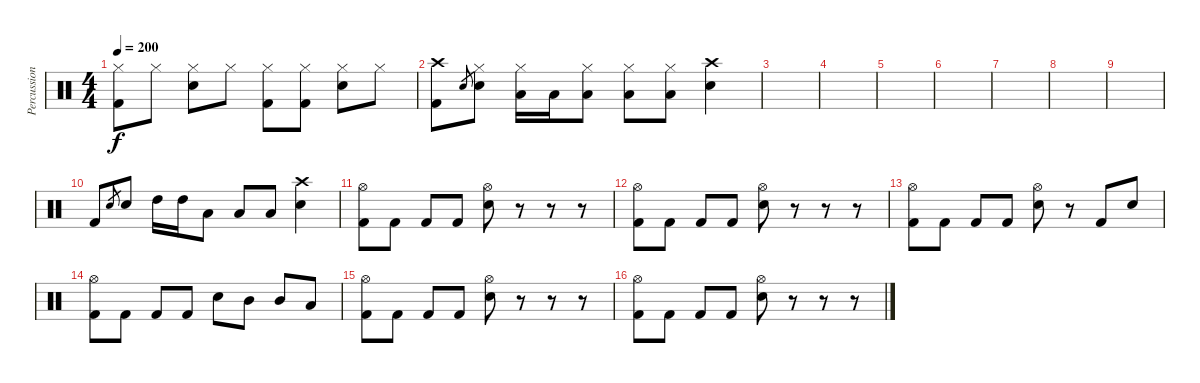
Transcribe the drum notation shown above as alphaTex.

\track ("Percussions" "Percussion") {instrument percussion}
\staff {score}
\articulation defaults
\ts (4 4)
\tempo 200
\clef neutral
\ks c
("Hi-Hat (closed)" "Kick (hit) 2").8{dy f} "Hi-Hat (closed)".8 ("Hi-Hat (closed)" "Electric Snare (hit)").8 "Hi-Hat (closed)".8 ("Hi-Hat (closed)" "Kick (hit) 2").8 ("Hi-Hat (closed)" "Kick (hit) 2").8 ("Hi-Hat (closed)" "Electric Snare (hit)").8 "Hi-Hat (closed)".8 |
("Crash high (hit)" "Kick (hit) 2").8 "Electric Snare (hit)".8{gr} ("Hi-Hat (closed)" "Electric Snare (hit)").8 ("Hi-Hat (closed)" "Low Floor Tom (hit)").16 "Low Floor Tom (hit)".16 ("Hi-Hat (closed)" "Low Floor Tom (hit)").8 ("Hi-Hat (closed)" "Low Floor Tom (hit)").8 ("Hi-Hat (closed)" "Low Floor Tom (hit)").8 ("Crash high (hit)" "Electric Snare (hit)").4 |
|
|
|
|
|
|
|
"Kick (hit) 2".8 "Electric Snare (hit)".8{gr} "Electric Snare (hit)".8 "High Tom (hit)".16 "High Tom (hit)".16 "Low Tom (hit)".8 "Low Tom (hit)".8 "Low Floor Tom (hit)".8 ("Crash high (hit)" "Electric Snare (hit)").4 |
("Hi-Hat (open)" "Kick (hit) 2").8 "Kick (hit) 2".8 "Kick (hit) 2".8 "Kick (hit) 2".8 ("Hi-Hat (open)" "Electric Snare (hit)").8 r.8 r.8 r.8 |
("Hi-Hat (open)" "Kick (hit) 2").8 "Kick (hit) 2".8 "Kick (hit) 2".8 "Kick (hit) 2".8 ("Hi-Hat (open)" "Electric Snare (hit)").8 r.8 r.8 r.8 |
("Hi-Hat (open)" "Kick (hit) 2").8 "Kick (hit) 2".8 "Kick (hit) 2".8 "Kick (hit) 2".8 ("Hi-Hat (open)" "Electric Snare (hit)").8 r.8 "Kick (hit) 2".8 "Electric Snare (hit)".8 |
("Hi-Hat (open)" "Kick (hit) 2").8 "Kick (hit) 2".8 "Kick (hit) 2".8 "Kick (hit) 2".8 "Electric Snare (hit)".8 "Mid Tom (hit)".8 "Mid Tom (hit)".8 "Low Tom (hit)".8 |
("Hi-Hat (open)" "Kick (hit) 2").8 "Kick (hit) 2".8 "Kick (hit) 2".8 "Kick (hit) 2".8 ("Hi-Hat (open)" "Electric Snare (hit)").8 r.8 r.8 r.8 |
("Hi-Hat (open)" "Kick (hit) 2").8 "Kick (hit) 2".8 "Kick (hit) 2".8 "Kick (hit) 2".8 ("Hi-Hat (open)" "Electric Snare (hit)").8 r.8 r.8 r.8
